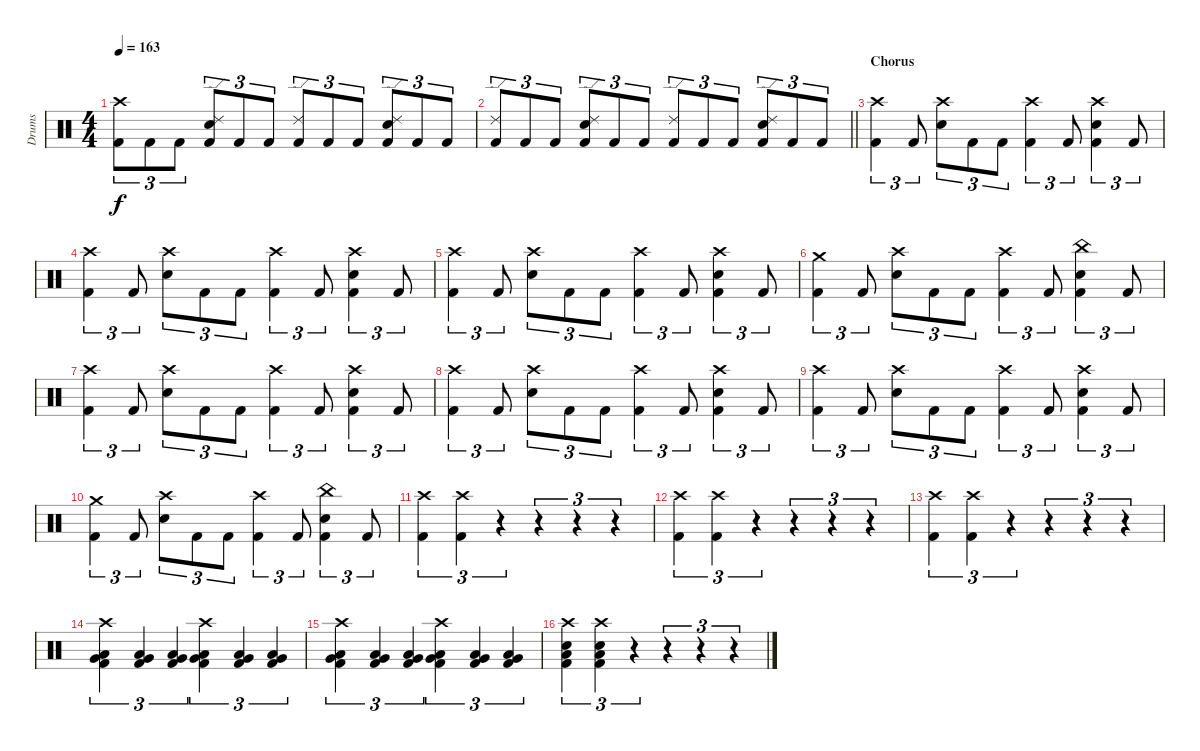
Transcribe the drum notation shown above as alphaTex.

\track ("Drums" "Drums") {instrument percussion}
\staff {score}
\articulation defaults
\ts (4 4)
\tempo 163
\clef neutral
\ks c
("Crash high (hit)" "Kick (hit) 2").8{tu (3 2) dy f} "Kick (hit) 2".8{tu (3 2)} "Kick (hit) 2".8{tu (3 2)} ("Ride (edge) 2" "Electric Snare (hit)" "Kick (hit) 2").8{tu (3 2)} "Kick (hit) 2".8{tu (3 2)} "Kick (hit) 2".8{tu (3 2)} ("Ride (edge) 2" "Kick (hit) 2").8{tu (3 2)} "Kick (hit) 2".8{tu (3 2)} "Kick (hit) 2".8{tu (3 2)} ("Ride (edge) 2" "Electric Snare (hit)" "Kick (hit) 2").8{tu (3 2)} "Kick (hit) 2".8{tu (3 2)} "Kick (hit) 2".8{tu (3 2)} |
\barLineRight lightlight
("Ride (edge) 2" "Kick (hit) 2").8{tu (3 2)} "Kick (hit) 2".8{tu (3 2)} "Kick (hit) 2".8{tu (3 2)} ("Ride (edge) 2" "Electric Snare (hit)" "Kick (hit) 2").8{tu (3 2)} "Kick (hit) 2".8{tu (3 2)} "Kick (hit) 2".8{tu (3 2)} ("Ride (edge) 2" "Kick (hit) 2").8{tu (3 2)} "Kick (hit) 2".8{tu (3 2)} "Kick (hit) 2".8{tu (3 2)} ("Ride (edge) 2" "Electric Snare (hit)" "Kick (hit) 2").8{tu (3 2)} "Kick (hit) 2".8{tu (3 2)} "Kick (hit) 2".8{tu (3 2)} |
\section ("" "Chorus")
("Crash high (hit)" "Kick (hit) 2").4{tu (3 2)} "Kick (hit) 2".8{tu (3 2)} ("Crash high (hit)" "Electric Snare (hit)").8{tu (3 2)} "Kick (hit) 2".8{tu (3 2)} "Kick (hit) 2".8{tu (3 2)} ("Crash high (hit)" "Kick (hit) 2").4{tu (3 2)} "Kick (hit) 2".8{tu (3 2)} ("Crash high (hit)" "Electric Snare (hit)" "Kick (hit) 2").4{tu (3 2)} "Kick (hit) 2".8{tu (3 2)} |
("Crash high (hit)" "Kick (hit) 2").4{tu (3 2)} "Kick (hit) 2".8{tu (3 2)} ("Crash high (hit)" "Electric Snare (hit)").8{tu (3 2)} "Kick (hit) 2".8{tu (3 2)} "Kick (hit) 2".8{tu (3 2)} ("Crash high (hit)" "Kick (hit) 2").4{tu (3 2)} "Kick (hit) 2".8{tu (3 2)} ("Crash high (hit)" "Electric Snare (hit)" "Kick (hit) 2").4{tu (3 2)} "Kick (hit) 2".8{tu (3 2)} |
("Crash high (hit)" "Kick (hit) 2").4{tu (3 2)} "Kick (hit) 2".8{tu (3 2)} ("Crash high (hit)" "Electric Snare (hit)").8{tu (3 2)} "Kick (hit) 2".8{tu (3 2)} "Kick (hit) 2".8{tu (3 2)} ("Crash high (hit)" "Kick (hit) 2").4{tu (3 2)} "Kick (hit) 2".8{tu (3 2)} ("Crash high (hit)" "Electric Snare (hit)" "Kick (hit) 2").4{tu (3 2)} "Kick (hit) 2".8{tu (3 2)} |
("Crash medium (hit)" "Kick (hit) 2").4{tu (3 2)} "Kick (hit) 2".8{tu (3 2)} ("Crash high (hit)" "Electric Snare (hit)").8{tu (3 2)} "Kick (hit) 2".8{tu (3 2)} "Kick (hit) 2".8{tu (3 2)} ("Crash high (hit)" "Kick (hit) 2").4{tu (3 2)} "Kick (hit) 2".8{tu (3 2)} ("China (hit)" "Electric Snare (hit)" "Kick (hit) 2").4{tu (3 2)} "Kick (hit) 2".8{tu (3 2)} |
("Crash high (hit)" "Kick (hit) 2").4{tu (3 2)} "Kick (hit) 2".8{tu (3 2)} ("Crash high (hit)" "Electric Snare (hit)").8{tu (3 2)} "Kick (hit) 2".8{tu (3 2)} "Kick (hit) 2".8{tu (3 2)} ("Crash high (hit)" "Kick (hit) 2").4{tu (3 2)} "Kick (hit) 2".8{tu (3 2)} ("Crash high (hit)" "Electric Snare (hit)" "Kick (hit) 2").4{tu (3 2)} "Kick (hit) 2".8{tu (3 2)} |
("Crash high (hit)" "Kick (hit) 2").4{tu (3 2)} "Kick (hit) 2".8{tu (3 2)} ("Crash high (hit)" "Electric Snare (hit)").8{tu (3 2)} "Kick (hit) 2".8{tu (3 2)} "Kick (hit) 2".8{tu (3 2)} ("Crash high (hit)" "Kick (hit) 2").4{tu (3 2)} "Kick (hit) 2".8{tu (3 2)} ("Crash high (hit)" "Electric Snare (hit)" "Kick (hit) 2").4{tu (3 2)} "Kick (hit) 2".8{tu (3 2)} |
("Crash high (hit)" "Kick (hit) 2").4{tu (3 2)} "Kick (hit) 2".8{tu (3 2)} ("Crash high (hit)" "Electric Snare (hit)").8{tu (3 2)} "Kick (hit) 2".8{tu (3 2)} "Kick (hit) 2".8{tu (3 2)} ("Crash high (hit)" "Kick (hit) 2").4{tu (3 2)} "Kick (hit) 2".8{tu (3 2)} ("Crash high (hit)" "Electric Snare (hit)" "Kick (hit) 2").4{tu (3 2)} "Kick (hit) 2".8{tu (3 2)} |
("Crash medium (hit)" "Kick (hit) 2").4{tu (3 2)} "Kick (hit) 2".8{tu (3 2)} ("Crash high (hit)" "Electric Snare (hit)").8{tu (3 2)} "Kick (hit) 2".8{tu (3 2)} "Kick (hit) 2".8{tu (3 2)} ("Crash high (hit)" "Kick (hit) 2").4{tu (3 2)} "Kick (hit) 2".8{tu (3 2)} ("China (hit)" "Electric Snare (hit)" "Kick (hit) 2").4{tu (3 2)} "Kick (hit) 2".8{tu (3 2)} |
("Crash high (hit)" "Kick (hit) 2").4{tu (3 2)} ("Crash high (hit)" "Kick (hit) 2").4{tu (3 2)} r.4{tu (3 2)} r.4{tu (3 2)} r.4{tu (3 2)} r.4{tu (3 2)} |
("Crash high (hit)" "Kick (hit) 2").4{tu (3 2)} ("Crash high (hit)" "Kick (hit) 2").4{tu (3 2)} r.4{tu (3 2)} r.4{tu (3 2)} r.4{tu (3 2)} r.4{tu (3 2)} |
("Crash high (hit)" "Kick (hit) 2").4{tu (3 2)} ("Crash high (hit)" "Kick (hit) 2").4{tu (3 2)} r.4{tu (3 2)} r.4{tu (3 2)} r.4{tu (3 2)} r.4{tu (3 2)} |
("Crash high (hit)" "Low Tom (hit)" "Very Low Tom (hit)" "Kick (hit) 2").4{tu (3 2)} ("Low Tom (hit)" "Very Low Tom (hit)" "Kick (hit) 2").4{tu (3 2)} ("Low Tom (hit)" "Very Low Tom (hit)" "Kick (hit) 2").4{tu (3 2)} ("Crash high (hit)" "Low Tom (hit)" "Very Low Tom (hit)" "Kick (hit) 2").4{tu (3 2)} ("Low Tom (hit)" "Very Low Tom (hit)" "Kick (hit) 2").4{tu (3 2)} ("Low Tom (hit)" "Very Low Tom (hit)" "Kick (hit) 2").4{tu (3 2)} |
("Crash high (hit)" "Low Tom (hit)" "Very Low Tom (hit)" "Kick (hit) 2").4{tu (3 2)} ("Low Tom (hit)" "Very Low Tom (hit)" "Kick (hit) 2").4{tu (3 2)} ("Low Tom (hit)" "Very Low Tom (hit)" "Kick (hit) 2").4{tu (3 2)} ("Crash high (hit)" "Low Tom (hit)" "Very Low Tom (hit)" "Kick (hit) 2").4{tu (3 2)} ("Low Tom (hit)" "Very Low Tom (hit)" "Kick (hit) 2").4{tu (3 2)} ("Low Tom (hit)" "Very Low Tom (hit)" "Kick (hit) 2").4{tu (3 2)} |
("Crash high (hit)" "Low Tom (hit)" "Electric Snare (hit)" "Kick (hit) 2").4{tu (3 2)} ("Crash high (hit)" "Low Tom (hit)" "Electric Snare (hit)" "Kick (hit) 2").4{tu (3 2)} r.4{tu (3 2)} r.4{tu (3 2)} r.4{tu (3 2)} r.4{tu (3 2)}
